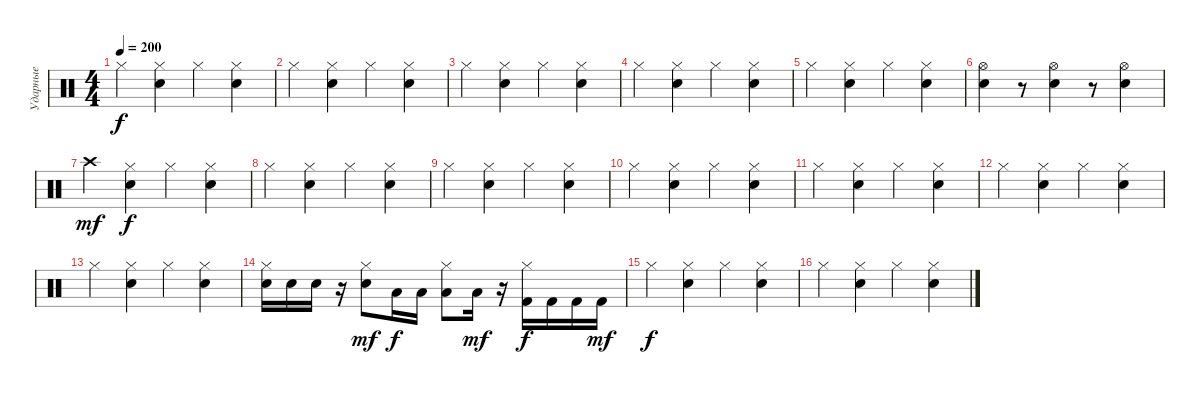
\track ("Ударные" "Ударные") {instrument percussion}
\staff {score}
\articulation defaults
\ts (4 4)
\tempo 200
\clef neutral
\ks c "Hi-Hat (closed)".4{dy f}
("Snare (hit) 2" "Hi-Hat (closed)").4 "Hi-Hat (closed)".4 ("Snare (hit) 2" "Hi-Hat (closed)").4 |
"Hi-Hat (closed)".4 ("Snare (hit) 2" "Hi-Hat (closed)").4 "Hi-Hat (closed)".4 ("Snare (hit) 2" "Hi-Hat (closed)").4 |
"Hi-Hat (closed)".4 ("Snare (hit) 2" "Hi-Hat (closed)").4 "Hi-Hat (closed)".4 ("Snare (hit) 2" "Hi-Hat (closed)").4 |
"Hi-Hat (closed)".4 ("Snare (hit) 2" "Hi-Hat (closed)").4 "Hi-Hat (closed)".4 ("Snare (hit) 2" "Hi-Hat (closed)").4 |
"Hi-Hat (closed)".4 ("Snare (hit) 2" "Hi-Hat (closed)").4 "Hi-Hat (closed)".4 ("Snare (hit) 2" "Hi-Hat (closed)").4 |
("Hi-Hat (open)" "Electric Snare (hit)").4 r.8 ("Hi-Hat (open)" "Electric Snare (hit)").4 r.8 ("Hi-Hat (open)" "Electric Snare (hit)").4 |
"Crash high (hit)".4{dy mf} ("Snare (hit) 2" "Hi-Hat (closed)").4{dy f} "Hi-Hat (closed)".4 ("Snare (hit) 2" "Hi-Hat (closed)").4 |
"Hi-Hat (closed)".4 ("Snare (hit) 2" "Hi-Hat (closed)").4 "Hi-Hat (closed)".4 ("Snare (hit) 2" "Hi-Hat (closed)").4 |
"Hi-Hat (closed)".4 ("Snare (hit) 2" "Hi-Hat (closed)").4 "Hi-Hat (closed)".4 ("Snare (hit) 2" "Hi-Hat (closed)").4 |
"Hi-Hat (closed)".4 ("Snare (hit) 2" "Hi-Hat (closed)").4 "Hi-Hat (closed)".4 ("Snare (hit) 2" "Hi-Hat (closed)").4 |
"Hi-Hat (closed)".4 ("Snare (hit) 2" "Hi-Hat (closed)").4 "Hi-Hat (closed)".4 ("Snare (hit) 2" "Hi-Hat (closed)").4 |
"Hi-Hat (closed)".4 ("Snare (hit) 2" "Hi-Hat (closed)").4 "Hi-Hat (closed)".4 ("Snare (hit) 2" "Hi-Hat (closed)").4 |
"Hi-Hat (closed)".4 ("Snare (hit) 2" "Hi-Hat (closed)").4 "Hi-Hat (closed)".4 ("Snare (hit) 2" "Hi-Hat (closed)").4 |
("Snare (hit) 2" "Hi-Hat (closed)").16 "Snare (hit) 2".16 "Snare (hit) 2".16 r.16 ("Snare (hit) 2" "Hi-Hat (closed)").8{dy mf} "Low Floor Tom (hit)".16{dy f} "Low Floor Tom (hit)".16 ("Low Floor Tom (hit)" "Hi-Hat (closed)").8 "Low Floor Tom (hit)".16{dy mf} r.16 ("Kick (hit) 2" "Hi-Hat (closed)").16{dy f} "Kick (hit) 2".16 "Kick (hit) 2".16 "Kick (hit) 2".16{dy mf} |
"Hi-Hat (closed)".4{dy f} ("Snare (hit) 2" "Hi-Hat (closed)").4 "Hi-Hat (closed)".4 ("Snare (hit) 2" "Hi-Hat (closed)").4 |
"Hi-Hat (closed)".4 ("Snare (hit) 2" "Hi-Hat (closed)").4 "Hi-Hat (closed)".4 ("Snare (hit) 2" "Hi-Hat (closed)").4
